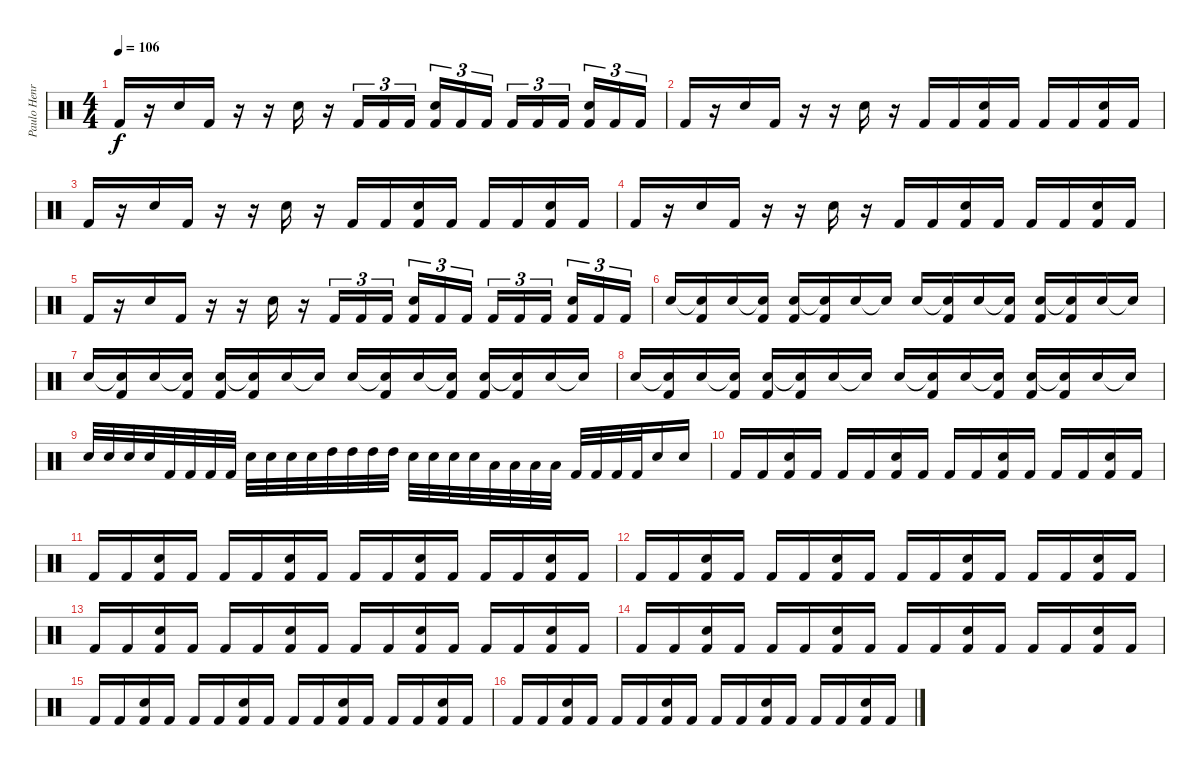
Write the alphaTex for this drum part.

\track ("Paulo Henrique" "Paulo Henr") {instrument percussion}
\staff {score}
\articulation defaults
\ts (4 4)
\tempo 106
\clef neutral
\ks c "Kick (hit) 2".16{dy f}
r.16 "Electric Snare (hit)".16 "Kick (hit) 2".16 r.16 r.16 "Electric Snare (hit)".16 r.16 "Kick (hit) 2".16{tu (3 2)} "Kick (hit) 2".16{tu (3 2)} "Kick (hit) 2".16{tu (3 2)} ("Electric Snare (hit)" "Kick (hit) 2").16{tu (3 2)} "Kick (hit) 2".16{tu (3 2)} "Kick (hit) 2".16{tu (3 2)} "Kick (hit) 2".16{tu (3 2)} "Kick (hit) 2".16{tu (3 2)} "Kick (hit) 2".16{tu (3 2)} ("Electric Snare (hit)" "Kick (hit) 2").16{tu (3 2)} "Kick (hit) 2".16{tu (3 2)} "Kick (hit) 2".16{tu (3 2)} |
"Kick (hit) 2".16 r.16 "Electric Snare (hit)".16 "Kick (hit) 2".16 r.16 r.16 "Electric Snare (hit)".16 r.16 "Kick (hit) 2".16 "Kick (hit) 2".16 ("Electric Snare (hit)" "Kick (hit) 2").16 "Kick (hit) 2".16 "Kick (hit) 2".16 "Kick (hit) 2".16 ("Electric Snare (hit)" "Kick (hit) 2").16 "Kick (hit) 2".16 |
"Kick (hit) 2".16 r.16 "Electric Snare (hit)".16 "Kick (hit) 2".16 r.16 r.16 "Electric Snare (hit)".16 r.16 "Kick (hit) 2".16 "Kick (hit) 2".16 ("Electric Snare (hit)" "Kick (hit) 2").16 "Kick (hit) 2".16 "Kick (hit) 2".16 "Kick (hit) 2".16 ("Electric Snare (hit)" "Kick (hit) 2").16 "Kick (hit) 2".16 |
"Kick (hit) 2".16 r.16 "Electric Snare (hit)".16 "Kick (hit) 2".16 r.16 r.16 "Electric Snare (hit)".16 r.16 "Kick (hit) 2".16 "Kick (hit) 2".16 ("Electric Snare (hit)" "Kick (hit) 2").16 "Kick (hit) 2".16 "Kick (hit) 2".16 "Kick (hit) 2".16 ("Electric Snare (hit)" "Kick (hit) 2").16 "Kick (hit) 2".16 |
"Kick (hit) 2".16 r.16 "Electric Snare (hit)".16 "Kick (hit) 2".16 r.16 r.16 "Electric Snare (hit)".16 r.16 "Kick (hit) 2".16{tu (3 2)} "Kick (hit) 2".16{tu (3 2)} "Kick (hit) 2".16{tu (3 2)} ("Electric Snare (hit)" "Kick (hit) 2").16{tu (3 2)} "Kick (hit) 2".16{tu (3 2)} "Kick (hit) 2".16{tu (3 2)} "Kick (hit) 2".16{tu (3 2)} "Kick (hit) 2".16{tu (3 2)} "Kick (hit) 2".16{tu (3 2)} ("Electric Snare (hit)" "Kick (hit) 2").16{tu (3 2)} "Kick (hit) 2".16{tu (3 2)} "Kick (hit) 2".16{tu (3 2)} |
"Electric Snare (hit)".16 ("Snare (hit)"{t} "Kick (hit) 2").16 "Electric Snare (hit)".16 ("Snare (hit)"{t} "Kick (hit) 2").16 ("Electric Snare (hit)" "Kick (hit) 2").16 ("Snare (hit)"{t} "Kick (hit) 2").16 "Electric Snare (hit)".16 "Snare (hit)"{t}.16 "Electric Snare (hit)".16 ("Snare (hit)"{t} "Kick (hit) 2").16 "Electric Snare (hit)".16 ("Snare (hit)"{t} "Kick (hit) 2").16 ("Electric Snare (hit)" "Kick (hit) 2").16 ("Snare (hit)"{t} "Kick (hit) 2").16 "Electric Snare (hit)".16 "Snare (hit)"{t}.16 |
"Electric Snare (hit)".16 ("Snare (hit)"{t} "Kick (hit) 2").16 "Electric Snare (hit)".16 ("Snare (hit)"{t} "Kick (hit) 2").16 ("Electric Snare (hit)" "Kick (hit) 2").16 ("Snare (hit)"{t} "Kick (hit) 2").16 "Electric Snare (hit)".16 "Snare (hit)"{t}.16 "Electric Snare (hit)".16 ("Snare (hit)"{t} "Kick (hit) 2").16 "Electric Snare (hit)".16 ("Snare (hit)"{t} "Kick (hit) 2").16 ("Electric Snare (hit)" "Kick (hit) 2").16 ("Snare (hit)"{t} "Kick (hit) 2").16 "Electric Snare (hit)".16 "Snare (hit)"{t}.16 |
"Electric Snare (hit)".16 ("Snare (hit)"{t} "Kick (hit) 2").16 "Electric Snare (hit)".16 ("Snare (hit)"{t} "Kick (hit) 2").16 ("Electric Snare (hit)" "Kick (hit) 2").16 ("Snare (hit)"{t} "Kick (hit) 2").16 "Electric Snare (hit)".16 "Snare (hit)"{t}.16 "Electric Snare (hit)".16 ("Snare (hit)"{t} "Kick (hit) 2").16 "Electric Snare (hit)".16 ("Snare (hit)"{t} "Kick (hit) 2").16 ("Electric Snare (hit)" "Kick (hit) 2").16 ("Snare (hit)"{t} "Kick (hit) 2").16 "Electric Snare (hit)".16 "Snare (hit)"{t}.16 |
"Electric Snare (hit)".32 "Electric Snare (hit)".32 "Electric Snare (hit)".32 "Electric Snare (hit)".32 "Kick (hit) 2".32 "Kick (hit) 2".32 "Kick (hit) 2".32 "Kick (hit) 2".32 "Electric Snare (hit)".32 "Electric Snare (hit)".32 "Electric Snare (hit)".32 "Electric Snare (hit)".32 "High Tom (hit)".32 "High Tom (hit)".32 "High Tom (hit)".32 "High Tom (hit)".32 "Electric Snare (hit)".32 "Electric Snare (hit)".32 "Electric Snare (hit)".32 "Electric Snare (hit)".32 "Low Tom (hit)".32 "Low Tom (hit)".32 "Low Tom (hit)".32 "Low Tom (hit)".32 "Kick (hit) 2".32 "Kick (hit) 2".32 "Kick (hit) 2".32 "Kick (hit) 2".32 "Electric Snare (hit)".16 "Electric Snare (hit)".16 |
"Kick (hit) 2".16 "Kick (hit) 2".16 ("Electric Snare (hit)" "Kick (hit) 2").16 "Kick (hit) 2".16 "Kick (hit) 2".16 "Kick (hit) 2".16 ("Electric Snare (hit)" "Kick (hit) 2").16 "Kick (hit) 2".16 "Kick (hit) 2".16 "Kick (hit) 2".16 ("Electric Snare (hit)" "Kick (hit) 2").16 "Kick (hit) 2".16 "Kick (hit) 2".16 "Kick (hit) 2".16 ("Electric Snare (hit)" "Kick (hit) 2").16 "Kick (hit) 2".16 |
"Kick (hit) 2".16 "Kick (hit) 2".16 ("Electric Snare (hit)" "Kick (hit) 2").16 "Kick (hit) 2".16 "Kick (hit) 2".16 "Kick (hit) 2".16 ("Electric Snare (hit)" "Kick (hit) 2").16 "Kick (hit) 2".16 "Kick (hit) 2".16 "Kick (hit) 2".16 ("Electric Snare (hit)" "Kick (hit) 2").16 "Kick (hit) 2".16 "Kick (hit) 2".16 "Kick (hit) 2".16 ("Electric Snare (hit)" "Kick (hit) 2").16 "Kick (hit) 2".16 |
"Kick (hit) 2".16 "Kick (hit) 2".16 ("Electric Snare (hit)" "Kick (hit) 2").16 "Kick (hit) 2".16 "Kick (hit) 2".16 "Kick (hit) 2".16 ("Electric Snare (hit)" "Kick (hit) 2").16 "Kick (hit) 2".16 "Kick (hit) 2".16 "Kick (hit) 2".16 ("Electric Snare (hit)" "Kick (hit) 2").16 "Kick (hit) 2".16 "Kick (hit) 2".16 "Kick (hit) 2".16 ("Electric Snare (hit)" "Kick (hit) 2").16 "Kick (hit) 2".16 |
"Kick (hit) 2".16 "Kick (hit) 2".16 ("Electric Snare (hit)" "Kick (hit) 2").16 "Kick (hit) 2".16 "Kick (hit) 2".16 "Kick (hit) 2".16 ("Electric Snare (hit)" "Kick (hit) 2").16 "Kick (hit) 2".16 "Kick (hit) 2".16 "Kick (hit) 2".16 ("Electric Snare (hit)" "Kick (hit) 2").16 "Kick (hit) 2".16 "Kick (hit) 2".16 "Kick (hit) 2".16 ("Electric Snare (hit)" "Kick (hit) 2").16 "Kick (hit) 2".16 |
"Kick (hit) 2".16 "Kick (hit) 2".16 ("Electric Snare (hit)" "Kick (hit) 2").16 "Kick (hit) 2".16 "Kick (hit) 2".16 "Kick (hit) 2".16 ("Electric Snare (hit)" "Kick (hit) 2").16 "Kick (hit) 2".16 "Kick (hit) 2".16 "Kick (hit) 2".16 ("Electric Snare (hit)" "Kick (hit) 2").16 "Kick (hit) 2".16 "Kick (hit) 2".16 "Kick (hit) 2".16 ("Electric Snare (hit)" "Kick (hit) 2").16 "Kick (hit) 2".16 |
"Kick (hit) 2".16 "Kick (hit) 2".16 ("Electric Snare (hit)" "Kick (hit) 2").16 "Kick (hit) 2".16 "Kick (hit) 2".16 "Kick (hit) 2".16 ("Electric Snare (hit)" "Kick (hit) 2").16 "Kick (hit) 2".16 "Kick (hit) 2".16 "Kick (hit) 2".16 ("Electric Snare (hit)" "Kick (hit) 2").16 "Kick (hit) 2".16 "Kick (hit) 2".16 "Kick (hit) 2".16 ("Electric Snare (hit)" "Kick (hit) 2").16 "Kick (hit) 2".16 |
"Kick (hit) 2".16 "Kick (hit) 2".16 ("Electric Snare (hit)" "Kick (hit) 2").16 "Kick (hit) 2".16 "Kick (hit) 2".16 "Kick (hit) 2".16 ("Electric Snare (hit)" "Kick (hit) 2").16 "Kick (hit) 2".16 "Kick (hit) 2".16 "Kick (hit) 2".16 ("Electric Snare (hit)" "Kick (hit) 2").16 "Kick (hit) 2".16 "Kick (hit) 2".16 "Kick (hit) 2".16 ("Electric Snare (hit)" "Kick (hit) 2").16 "Kick (hit) 2".16
